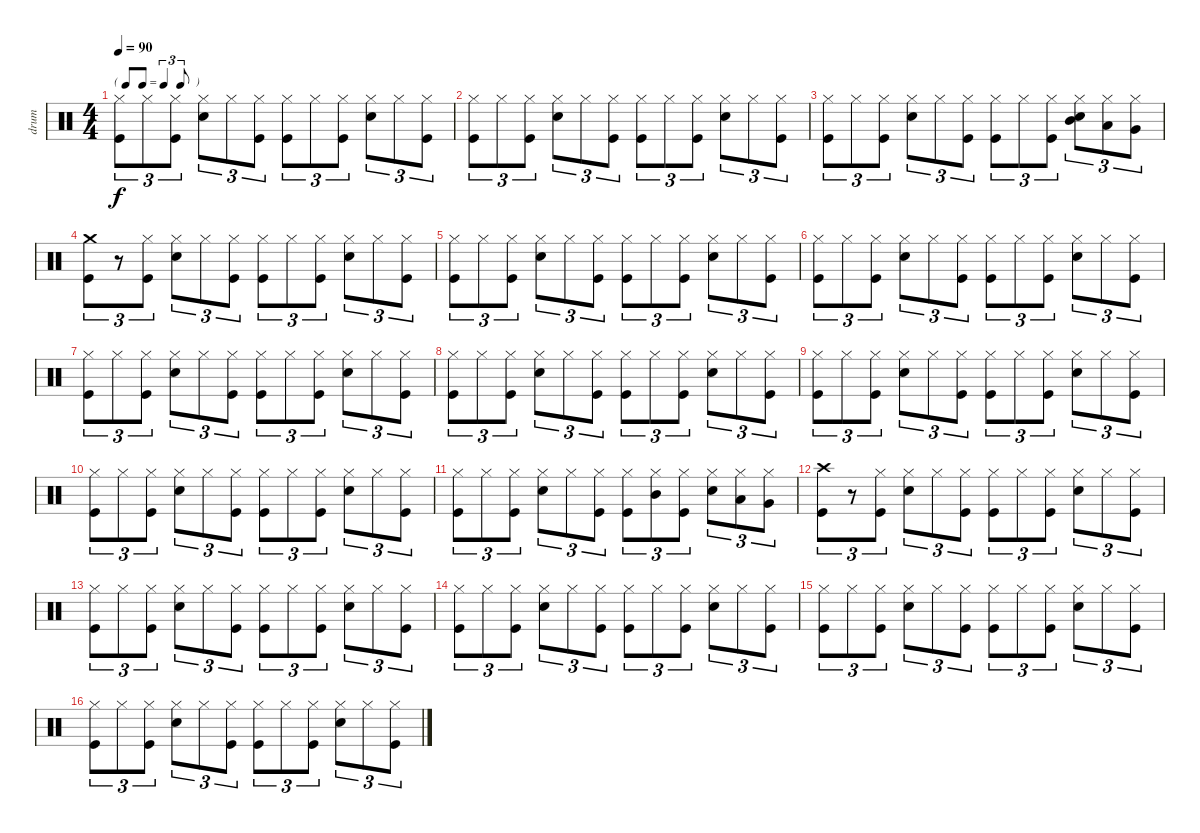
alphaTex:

\track ("drum" "drum") {instrument percussion}
\staff {score}
\articulation defaults
\ts (4 4)
\tf triplet8th
\tempo 90
\clef neutral
\ks c
("Hi-Hat (closed)" "Kick (hit)").8{tu (3 2) dy f} "Hi-Hat (closed)".8{tu (3 2)} ("Hi-Hat (closed)" "Kick (hit)").8{tu (3 2)} ("Hi-Hat (closed)" "Snare (hit) 2").8{tu (3 2)} "Hi-Hat (closed)".8{tu (3 2)} ("Hi-Hat (closed)" "Kick (hit)").8{tu (3 2)} ("Hi-Hat (closed)" "Kick (hit)").8{tu (3 2)} "Hi-Hat (closed)".8{tu (3 2)} ("Hi-Hat (closed)" "Kick (hit)").8{tu (3 2)} ("Hi-Hat (closed)" "Snare (hit) 2").8{tu (3 2)} "Hi-Hat (closed)".8{tu (3 2)} ("Hi-Hat (closed)" "Kick (hit)").8{tu (3 2)} |
("Hi-Hat (closed)" "Kick (hit)").8{tu (3 2)} "Hi-Hat (closed)".8{tu (3 2)} ("Hi-Hat (closed)" "Kick (hit)").8{tu (3 2)} ("Hi-Hat (closed)" "Snare (hit) 2").8{tu (3 2)} "Hi-Hat (closed)".8{tu (3 2)} ("Hi-Hat (closed)" "Kick (hit)").8{tu (3 2)} ("Hi-Hat (closed)" "Kick (hit)").8{tu (3 2)} "Hi-Hat (closed)".8{tu (3 2)} ("Hi-Hat (closed)" "Kick (hit)").8{tu (3 2)} ("Hi-Hat (closed)" "Snare (hit) 2").8{tu (3 2)} "Hi-Hat (closed)".8{tu (3 2)} ("Hi-Hat (closed)" "Kick (hit)").8{tu (3 2)} |
("Hi-Hat (closed)" "Kick (hit)").8{tu (3 2)} "Hi-Hat (closed)".8{tu (3 2)} ("Hi-Hat (closed)" "Kick (hit)").8{tu (3 2)} ("Hi-Hat (closed)" "Snare (hit) 2").8{tu (3 2)} "Hi-Hat (closed)".8{tu (3 2)} ("Hi-Hat (closed)" "Kick (hit)").8{tu (3 2)} ("Hi-Hat (closed)" "Kick (hit)").8{tu (3 2)} "Hi-Hat (closed)".8{tu (3 2)} ("Hi-Hat (closed)" "Kick (hit)").8{tu (3 2)} ("Hi-Hat (closed)" "Mid Tom (hit)" "Snare (hit) 2").8{tu (3 2)} ("Hi-Hat (closed)" "Low Tom (hit)").8{tu (3 2)} ("Hi-Hat (closed)" "Very Low Tom (hit)").8{tu (3 2)} |
("Crash medium (hit)" "Kick (hit)").8{tu (3 2)} r.8{tu (3 2)} ("Hi-Hat (closed)" "Kick (hit)").8{tu (3 2)} ("Hi-Hat (closed)" "Snare (hit) 2").8{tu (3 2)} "Hi-Hat (closed)".8{tu (3 2)} ("Hi-Hat (closed)" "Kick (hit)").8{tu (3 2)} ("Hi-Hat (closed)" "Kick (hit)").8{tu (3 2)} "Hi-Hat (closed)".8{tu (3 2)} ("Hi-Hat (closed)" "Kick (hit)").8{tu (3 2)} ("Hi-Hat (closed)" "Snare (hit) 2").8{tu (3 2)} "Hi-Hat (closed)".8{tu (3 2)} ("Hi-Hat (closed)" "Kick (hit)").8{tu (3 2)} |
("Hi-Hat (closed)" "Kick (hit)").8{tu (3 2)} "Hi-Hat (closed)".8{tu (3 2)} ("Hi-Hat (closed)" "Kick (hit)").8{tu (3 2)} ("Hi-Hat (closed)" "Snare (hit) 2").8{tu (3 2)} "Hi-Hat (closed)".8{tu (3 2)} ("Hi-Hat (closed)" "Kick (hit)").8{tu (3 2)} ("Hi-Hat (closed)" "Kick (hit)").8{tu (3 2)} "Hi-Hat (closed)".8{tu (3 2)} ("Hi-Hat (closed)" "Kick (hit)").8{tu (3 2)} ("Hi-Hat (closed)" "Snare (hit) 2").8{tu (3 2)} "Hi-Hat (closed)".8{tu (3 2)} ("Hi-Hat (closed)" "Kick (hit)").8{tu (3 2)} |
("Hi-Hat (closed)" "Kick (hit)").8{tu (3 2)} "Hi-Hat (closed)".8{tu (3 2)} ("Hi-Hat (closed)" "Kick (hit)").8{tu (3 2)} ("Hi-Hat (closed)" "Snare (hit) 2").8{tu (3 2)} "Hi-Hat (closed)".8{tu (3 2)} ("Hi-Hat (closed)" "Kick (hit)").8{tu (3 2)} ("Hi-Hat (closed)" "Kick (hit)").8{tu (3 2)} "Hi-Hat (closed)".8{tu (3 2)} ("Hi-Hat (closed)" "Kick (hit)").8{tu (3 2)} ("Hi-Hat (closed)" "Snare (hit) 2").8{tu (3 2)} "Hi-Hat (closed)".8{tu (3 2)} ("Hi-Hat (closed)" "Kick (hit)").8{tu (3 2)} |
("Hi-Hat (closed)" "Kick (hit)").8{tu (3 2)} "Hi-Hat (closed)".8{tu (3 2)} ("Hi-Hat (closed)" "Kick (hit)").8{tu (3 2)} ("Hi-Hat (closed)" "Snare (hit) 2").8{tu (3 2)} "Hi-Hat (closed)".8{tu (3 2)} ("Hi-Hat (closed)" "Kick (hit)").8{tu (3 2)} ("Hi-Hat (closed)" "Kick (hit)").8{tu (3 2)} "Hi-Hat (closed)".8{tu (3 2)} ("Hi-Hat (closed)" "Kick (hit)").8{tu (3 2)} ("Hi-Hat (closed)" "Snare (hit) 2").8{tu (3 2)} "Hi-Hat (closed)".8{tu (3 2)} ("Hi-Hat (closed)" "Kick (hit)").8{tu (3 2)} |
("Hi-Hat (closed)" "Kick (hit)").8{tu (3 2)} "Hi-Hat (closed)".8{tu (3 2)} ("Hi-Hat (closed)" "Kick (hit)").8{tu (3 2)} ("Hi-Hat (closed)" "Snare (hit) 2").8{tu (3 2)} "Hi-Hat (closed)".8{tu (3 2)} ("Hi-Hat (closed)" "Kick (hit)").8{tu (3 2)} ("Hi-Hat (closed)" "Kick (hit)").8{tu (3 2)} "Hi-Hat (closed)".8{tu (3 2)} ("Hi-Hat (closed)" "Kick (hit)").8{tu (3 2)} ("Hi-Hat (closed)" "Snare (hit) 2").8{tu (3 2)} "Hi-Hat (closed)".8{tu (3 2)} ("Hi-Hat (closed)" "Kick (hit)").8{tu (3 2)} |
("Hi-Hat (closed)" "Kick (hit)").8{tu (3 2)} "Hi-Hat (closed)".8{tu (3 2)} ("Hi-Hat (closed)" "Kick (hit)").8{tu (3 2)} ("Hi-Hat (closed)" "Snare (hit) 2").8{tu (3 2)} "Hi-Hat (closed)".8{tu (3 2)} ("Hi-Hat (closed)" "Kick (hit)").8{tu (3 2)} ("Hi-Hat (closed)" "Kick (hit)").8{tu (3 2)} "Hi-Hat (closed)".8{tu (3 2)} ("Hi-Hat (closed)" "Kick (hit)").8{tu (3 2)} ("Hi-Hat (closed)" "Snare (hit) 2").8{tu (3 2)} "Hi-Hat (closed)".8{tu (3 2)} ("Hi-Hat (closed)" "Kick (hit)").8{tu (3 2)} |
("Hi-Hat (closed)" "Kick (hit)").8{tu (3 2)} "Hi-Hat (closed)".8{tu (3 2)} ("Hi-Hat (closed)" "Kick (hit)").8{tu (3 2)} ("Hi-Hat (closed)" "Snare (hit) 2").8{tu (3 2)} "Hi-Hat (closed)".8{tu (3 2)} ("Hi-Hat (closed)" "Kick (hit)").8{tu (3 2)} ("Hi-Hat (closed)" "Kick (hit)").8{tu (3 2)} "Hi-Hat (closed)".8{tu (3 2)} ("Hi-Hat (closed)" "Kick (hit)").8{tu (3 2)} ("Hi-Hat (closed)" "Snare (hit) 2").8{tu (3 2)} "Hi-Hat (closed)".8{tu (3 2)} ("Hi-Hat (closed)" "Kick (hit)").8{tu (3 2)} |
("Hi-Hat (closed)" "Kick (hit)").8{tu (3 2)} "Hi-Hat (closed)".8{tu (3 2)} ("Hi-Hat (closed)" "Kick (hit)").8{tu (3 2)} ("Hi-Hat (closed)" "Snare (hit) 2").8{tu (3 2)} "Hi-Hat (closed)".8{tu (3 2)} ("Hi-Hat (closed)" "Kick (hit)").8{tu (3 2)} ("Hi-Hat (closed)" "Kick (hit)").8{tu (3 2)} ("Hi-Hat (closed)" "Mid Tom (hit)").8{tu (3 2)} ("Hi-Hat (closed)" "Kick (hit)").8{tu (3 2)} ("Hi-Hat (closed)" "Snare (hit) 2").8{tu (3 2)} ("Hi-Hat (closed)" "Low Tom (hit)").8{tu (3 2)} ("Hi-Hat (closed)" "Very Low Tom (hit)").8{tu (3 2)} |
("Crash high (hit)" "Kick (hit)").8{tu (3 2)} r.8{tu (3 2)} ("Hi-Hat (closed)" "Kick (hit)").8{tu (3 2)} ("Hi-Hat (closed)" "Snare (hit) 2").8{tu (3 2)} "Hi-Hat (closed)".8{tu (3 2)} ("Hi-Hat (closed)" "Kick (hit)").8{tu (3 2)} ("Hi-Hat (closed)" "Kick (hit)").8{tu (3 2)} "Hi-Hat (closed)".8{tu (3 2)} ("Hi-Hat (closed)" "Kick (hit)").8{tu (3 2)} ("Hi-Hat (closed)" "Snare (hit) 2").8{tu (3 2)} "Hi-Hat (closed)".8{tu (3 2)} ("Hi-Hat (closed)" "Kick (hit)").8{tu (3 2)} |
("Hi-Hat (closed)" "Kick (hit)").8{tu (3 2)} "Hi-Hat (closed)".8{tu (3 2)} ("Hi-Hat (closed)" "Kick (hit)").8{tu (3 2)} ("Hi-Hat (closed)" "Snare (hit) 2").8{tu (3 2)} "Hi-Hat (closed)".8{tu (3 2)} ("Hi-Hat (closed)" "Kick (hit)").8{tu (3 2)} ("Hi-Hat (closed)" "Kick (hit)").8{tu (3 2)} "Hi-Hat (closed)".8{tu (3 2)} ("Hi-Hat (closed)" "Kick (hit)").8{tu (3 2)} ("Hi-Hat (closed)" "Snare (hit) 2").8{tu (3 2)} "Hi-Hat (closed)".8{tu (3 2)} ("Hi-Hat (closed)" "Kick (hit)").8{tu (3 2)} |
("Hi-Hat (closed)" "Kick (hit)").8{tu (3 2)} "Hi-Hat (closed)".8{tu (3 2)} ("Hi-Hat (closed)" "Kick (hit)").8{tu (3 2)} ("Hi-Hat (closed)" "Snare (hit) 2").8{tu (3 2)} "Hi-Hat (closed)".8{tu (3 2)} ("Hi-Hat (closed)" "Kick (hit)").8{tu (3 2)} ("Hi-Hat (closed)" "Kick (hit)").8{tu (3 2)} "Hi-Hat (closed)".8{tu (3 2)} ("Hi-Hat (closed)" "Kick (hit)").8{tu (3 2)} ("Hi-Hat (closed)" "Snare (hit) 2").8{tu (3 2)} "Hi-Hat (closed)".8{tu (3 2)} ("Hi-Hat (closed)" "Kick (hit)").8{tu (3 2)} |
("Hi-Hat (closed)" "Kick (hit)").8{tu (3 2)} "Hi-Hat (closed)".8{tu (3 2)} ("Hi-Hat (closed)" "Kick (hit)").8{tu (3 2)} ("Hi-Hat (closed)" "Snare (hit) 2").8{tu (3 2)} "Hi-Hat (closed)".8{tu (3 2)} ("Hi-Hat (closed)" "Kick (hit)").8{tu (3 2)} ("Hi-Hat (closed)" "Kick (hit)").8{tu (3 2)} "Hi-Hat (closed)".8{tu (3 2)} ("Hi-Hat (closed)" "Kick (hit)").8{tu (3 2)} ("Hi-Hat (closed)" "Snare (hit) 2").8{tu (3 2)} "Hi-Hat (closed)".8{tu (3 2)} ("Hi-Hat (closed)" "Kick (hit)").8{tu (3 2)} |
("Hi-Hat (closed)" "Kick (hit)").8{tu (3 2)} "Hi-Hat (closed)".8{tu (3 2)} ("Hi-Hat (closed)" "Kick (hit)").8{tu (3 2)} ("Hi-Hat (closed)" "Snare (hit) 2").8{tu (3 2)} "Hi-Hat (closed)".8{tu (3 2)} ("Hi-Hat (closed)" "Kick (hit)").8{tu (3 2)} ("Hi-Hat (closed)" "Kick (hit)").8{tu (3 2)} "Hi-Hat (closed)".8{tu (3 2)} ("Hi-Hat (closed)" "Kick (hit)").8{tu (3 2)} ("Hi-Hat (closed)" "Snare (hit) 2").8{tu (3 2)} "Hi-Hat (closed)".8{tu (3 2)} ("Hi-Hat (closed)" "Kick (hit)").8{tu (3 2)}
